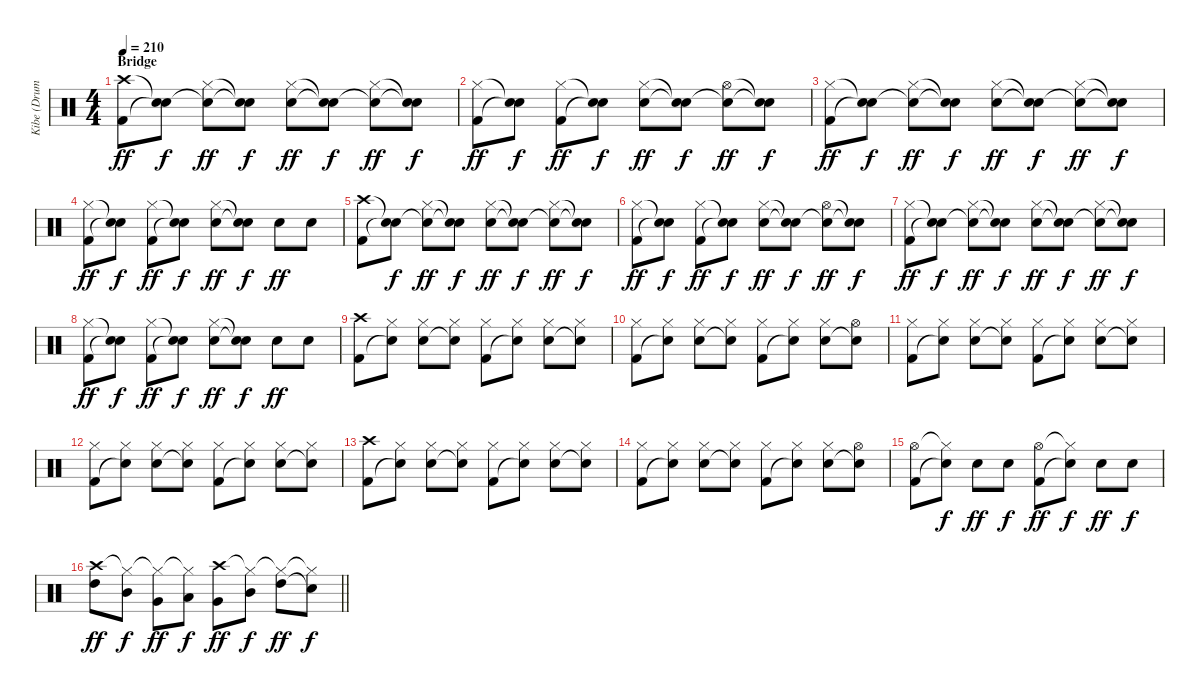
\track ("Kibe (Drums)" "Kibe (Drum") {instrument percussion}
\staff {score}
\articulation defaults
\ts (4 4)
\section ("" "Bridge")
\tempo 210
\clef neutral
\ks c
("Crash high (hit)" "Kick (hit) 2").8{dy ff} ("Snare (hit)"{t} "Snare (hit)"{t}).8{dy f} ("Hi-Hat (closed)" "Snare (hit)"{t}).8{dy ff} ("Snare (hit)"{t} "Snare (hit)"{t}).8{dy f} ("Hi-Hat (closed)" "Snare (hit) 2").8{dy ff} ("Snare (hit)"{t} "Snare (hit)"{t}).8{dy f} ("Hi-Hat (closed)" "Snare (hit)"{t}).8{dy ff} ("Snare (hit)"{t} "Snare (hit)"{t}).8{dy f} |
("Hi-Hat (closed)" "Kick (hit) 2").8{dy ff} ("Snare (hit)"{t} "Snare (hit)"{t}).8{dy f} ("Hi-Hat (closed)" "Kick (hit) 2").8{dy ff} ("Snare (hit)"{t} "Snare (hit)"{t}).8{dy f} ("Hi-Hat (closed)" "Snare (hit) 2").8{dy ff} ("Snare (hit)"{t} "Snare (hit)"{t}).8{dy f} ("Hi-Hat (open)" "Snare (hit) 2"{t}).8{dy ff} ("Snare (hit)"{t} "Snare (hit) 2"{t}).8{dy f} |
("Hi-Hat (closed)" "Kick (hit) 2").8{dy ff} ("Snare (hit)"{t} "Snare (hit)"{t}).8{dy f} ("Hi-Hat (closed)" "Snare (hit)"{t}).8{dy ff} ("Snare (hit)"{t} "Snare (hit)"{t}).8{dy f} ("Hi-Hat (closed)" "Snare (hit) 2").8{dy ff} ("Snare (hit)"{t} "Snare (hit)"{t}).8{dy f} ("Hi-Hat (closed)" "Snare (hit)"{t}).8{dy ff} ("Snare (hit)"{t} "Snare (hit)"{t}).8{dy f} |
("Hi-Hat (closed)" "Kick (hit) 2").8{dy ff} ("Snare (hit)"{t} "Snare (hit)"{t}).8{dy f} ("Hi-Hat (closed)" "Kick (hit) 2").8{dy ff} ("Snare (hit)"{t} "Snare (hit)"{t}).8{dy f} ("Hi-Hat (closed)" "Snare (hit) 2").8{dy ff} ("Snare (hit)"{t} "Snare (hit)"{t}).8{dy f} "Snare (hit) 2".8{dy ff} "Snare (hit) 2".8 |
("Crash high (hit)" "Kick (hit) 2").8 ("Snare (hit)"{t} "Snare (hit)"{t}).8{dy f} ("Hi-Hat (closed)" "Snare (hit)"{t}).8{dy ff} ("Snare (hit)"{t} "Snare (hit)"{t}).8{dy f} ("Hi-Hat (closed)" "Snare (hit) 2").8{dy ff} ("Snare (hit)"{t} "Snare (hit)"{t}).8{dy f} ("Hi-Hat (closed)" "Snare (hit)"{t}).8{dy ff} ("Snare (hit)"{t} "Snare (hit)"{t}).8{dy f} |
("Hi-Hat (closed)" "Kick (hit) 2").8{dy ff} ("Snare (hit)"{t} "Snare (hit)"{t}).8{dy f} ("Hi-Hat (closed)" "Kick (hit) 2").8{dy ff} ("Snare (hit)"{t} "Snare (hit)"{t}).8{dy f} ("Hi-Hat (closed)" "Snare (hit) 2").8{dy ff} ("Snare (hit)"{t} "Snare (hit)"{t}).8{dy f} ("Hi-Hat (open)" "Snare (hit) 2"{t}).8{dy ff} ("Snare (hit)"{t} "Snare (hit) 2"{t}).8{dy f} |
("Hi-Hat (closed)" "Kick (hit) 2").8{dy ff} ("Snare (hit)"{t} "Snare (hit)"{t}).8{dy f} ("Hi-Hat (closed)" "Snare (hit)"{t}).8{dy ff} ("Snare (hit)"{t} "Snare (hit)"{t}).8{dy f} ("Hi-Hat (closed)" "Snare (hit) 2").8{dy ff} ("Snare (hit)"{t} "Snare (hit)"{t}).8{dy f} ("Hi-Hat (closed)" "Snare (hit)"{t}).8{dy ff} ("Snare (hit)"{t} "Snare (hit)"{t}).8{dy f} |
("Hi-Hat (closed)" "Kick (hit) 2").8{dy ff} ("Snare (hit)"{t} "Snare (hit)"{t}).8{dy f} ("Hi-Hat (closed)" "Kick (hit) 2").8{dy ff} ("Snare (hit)"{t} "Snare (hit)"{t}).8{dy f} ("Hi-Hat (closed)" "Snare (hit) 2").8{dy ff} ("Snare (hit)"{t} "Snare (hit)"{t}).8{dy f} "Snare (hit) 2".8{dy ff} "Snare (hit) 2".8 |
("Crash high (hit)" "Kick (hit) 2").8 ("Hi-Hat (closed)" "Snare (hit)"{t}).8 ("Hi-Hat (closed)" "Snare (hit) 2").8 ("Hi-Hat (closed)" "Snare (hit)"{t}).8 ("Hi-Hat (closed)" "Kick (hit) 2").8 ("Hi-Hat (closed)" "Snare (hit)"{t}).8 ("Hi-Hat (closed)" "Snare (hit) 2").8 ("Hi-Hat (closed)" "Snare (hit)"{t}).8 |
("Hi-Hat (closed)" "Kick (hit) 2").8 ("Hi-Hat (closed)" "Snare (hit)"{t}).8 ("Hi-Hat (closed)" "Snare (hit) 2").8 ("Hi-Hat (closed)" "Snare (hit)"{t}).8 ("Hi-Hat (closed)" "Kick (hit) 2").8 ("Hi-Hat (closed)" "Snare (hit)"{t}).8 ("Hi-Hat (closed)" "Snare (hit) 2").8 ("Hi-Hat (open)" "Snare (hit)"{t}).8 |
("Hi-Hat (closed)" "Kick (hit) 2").8 ("Hi-Hat (closed)" "Snare (hit)"{t}).8 ("Hi-Hat (closed)" "Snare (hit) 2").8 ("Hi-Hat (closed)" "Snare (hit)"{t}).8 ("Hi-Hat (closed)" "Kick (hit) 2").8 ("Hi-Hat (closed)" "Snare (hit)"{t}).8 ("Hi-Hat (closed)" "Snare (hit) 2").8 ("Hi-Hat (closed)" "Snare (hit)"{t}).8 |
("Hi-Hat (closed)" "Kick (hit) 2").8 ("Hi-Hat (closed)" "Snare (hit)"{t}).8 ("Hi-Hat (closed)" "Snare (hit) 2").8 ("Hi-Hat (closed)" "Snare (hit)"{t}).8 ("Hi-Hat (closed)" "Kick (hit) 2").8 ("Hi-Hat (closed)" "Snare (hit)"{t}).8 ("Hi-Hat (closed)" "Snare (hit) 2").8 ("Hi-Hat (closed)" "Snare (hit)"{t}).8 |
("Crash high (hit)" "Kick (hit) 2").8 ("Hi-Hat (closed)" "Snare (hit)"{t}).8 ("Hi-Hat (closed)" "Snare (hit) 2").8 ("Hi-Hat (closed)" "Snare (hit)"{t}).8 ("Hi-Hat (closed)" "Kick (hit) 2").8 ("Hi-Hat (closed)" "Snare (hit)"{t}).8 ("Hi-Hat (closed)" "Snare (hit) 2").8 ("Hi-Hat (closed)" "Snare (hit)"{t}).8 |
("Hi-Hat (closed)" "Kick (hit) 2").8 ("Hi-Hat (closed)" "Snare (hit)"{t}).8 ("Hi-Hat (closed)" "Snare (hit) 2").8 ("Hi-Hat (closed)" "Snare (hit)"{t}).8 ("Hi-Hat (closed)" "Kick (hit) 2").8 ("Hi-Hat (closed)" "Snare (hit)"{t}).8 ("Hi-Hat (closed)" "Snare (hit) 2").8 ("Hi-Hat (open)" "Snare (hit)"{t}).8 |
("Hi-Hat (open)" "Kick (hit) 2").8 ("Hi-Hat (closed)"{t} "Snare (hit)"{t}).8{dy f} "Snare (hit) 2".8{dy ff} "Snare (hit) 2".8{dy f} ("Hi-Hat (open)" "Kick (hit) 2").8{dy ff} ("Hi-Hat (closed)"{t} "Snare (hit)"{t}).8{dy f} "Snare (hit) 2".8{dy ff} "Snare (hit) 2".8{dy f} |
\barLineRight lightlight
("Crash high (hit)" "High Tom (hit)").8{dy ff} ("Hi-Hat (closed)"{t} "Mid Tom (hit)").8{dy f} ("Hi-Hat (closed)"{t} "Very Low Tom (hit)").8{dy ff} ("Hi-Hat (closed)"{t} "Low Floor Tom (hit)").8{dy f} ("Crash high (hit)" "Very Low Tom (hit)").8{dy ff} ("Hi-Hat (closed)"{t} "Mid Tom (hit)").8{dy f} ("Hi-Hat (closed)"{t} "High Tom (hit)").8{dy ff} ("Hi-Hat (closed)"{t} "Snare (hit)"{t}).8{dy f}
